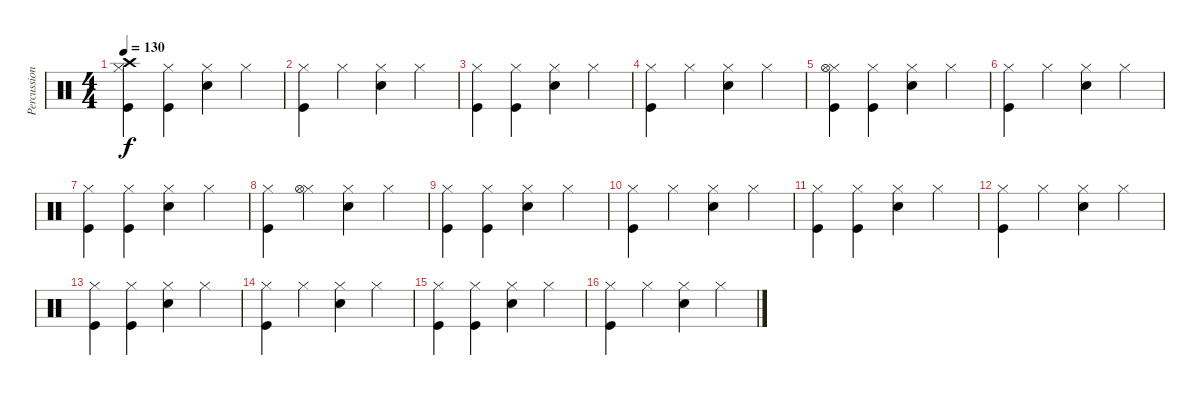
\track ("Percussion" "Percussion") {instrument percussion}
\staff {score}
\articulation defaults
\ts (4 4)
\tempo 130
\clef neutral
\ks c
("Hi-Hat (closed)" "Crash high (hit)" "Kick (hit)").4{dy f} ("Hi-Hat (closed)" "Kick (hit)").4 ("Hi-Hat (closed)" "Snare (hit) 2").4 "Hi-Hat (closed)".4 |
("Hi-Hat (closed)" "Kick (hit)").4 "Hi-Hat (closed)".4 ("Hi-Hat (closed)" "Snare (hit) 2").4 "Hi-Hat (closed)".4 |
("Hi-Hat (closed)" "Kick (hit)").4 ("Hi-Hat (closed)" "Kick (hit)").4 ("Hi-Hat (closed)" "Snare (hit) 2").4 "Hi-Hat (closed)".4 |
("Hi-Hat (closed)" "Kick (hit)").4 "Hi-Hat (closed)".4 ("Hi-Hat (closed)" "Snare (hit) 2").4 "Hi-Hat (closed)".4 |
("Hi-Hat (closed)" "Hi-Hat (open)" "Kick (hit)").4 ("Hi-Hat (closed)" "Kick (hit)").4 ("Hi-Hat (closed)" "Snare (hit) 2").4 "Hi-Hat (closed)".4 |
("Hi-Hat (closed)" "Kick (hit)").4 "Hi-Hat (closed)".4 ("Hi-Hat (closed)" "Snare (hit) 2").4 "Hi-Hat (closed)".4 |
("Hi-Hat (closed)" "Kick (hit)").4 ("Hi-Hat (closed)" "Kick (hit)").4 ("Hi-Hat (closed)" "Snare (hit) 2").4 "Hi-Hat (closed)".4 |
("Hi-Hat (closed)" "Kick (hit)").4 ("Hi-Hat (closed)" "Hi-Hat (open)").4 ("Hi-Hat (closed)" "Snare (hit) 2").4 "Hi-Hat (closed)".4 |
("Hi-Hat (closed)" "Kick (hit)").4 ("Hi-Hat (closed)" "Kick (hit)").4 ("Hi-Hat (closed)" "Snare (hit) 2").4 "Hi-Hat (closed)".4 |
("Hi-Hat (closed)" "Kick (hit)").4 "Hi-Hat (closed)".4 ("Hi-Hat (closed)" "Snare (hit) 2").4 "Hi-Hat (closed)".4 |
("Hi-Hat (closed)" "Kick (hit)").4 ("Hi-Hat (closed)" "Kick (hit)").4 ("Hi-Hat (closed)" "Snare (hit) 2").4 "Hi-Hat (closed)".4 |
("Hi-Hat (closed)" "Kick (hit)").4 "Hi-Hat (closed)".4 ("Hi-Hat (closed)" "Snare (hit) 2").4 "Hi-Hat (closed)".4 |
("Hi-Hat (closed)" "Kick (hit)").4 ("Hi-Hat (closed)" "Kick (hit)").4 ("Hi-Hat (closed)" "Snare (hit) 2").4 "Hi-Hat (closed)".4 |
("Hi-Hat (closed)" "Kick (hit)").4 "Hi-Hat (closed)".4 ("Hi-Hat (closed)" "Snare (hit) 2").4 "Hi-Hat (closed)".4 |
("Hi-Hat (closed)" "Kick (hit)").4 ("Hi-Hat (closed)" "Kick (hit)").4 ("Hi-Hat (closed)" "Snare (hit) 2").4 "Hi-Hat (closed)".4 |
("Hi-Hat (closed)" "Kick (hit)").4 "Hi-Hat (closed)".4 ("Hi-Hat (closed)" "Snare (hit) 2").4 "Hi-Hat (closed)".4
